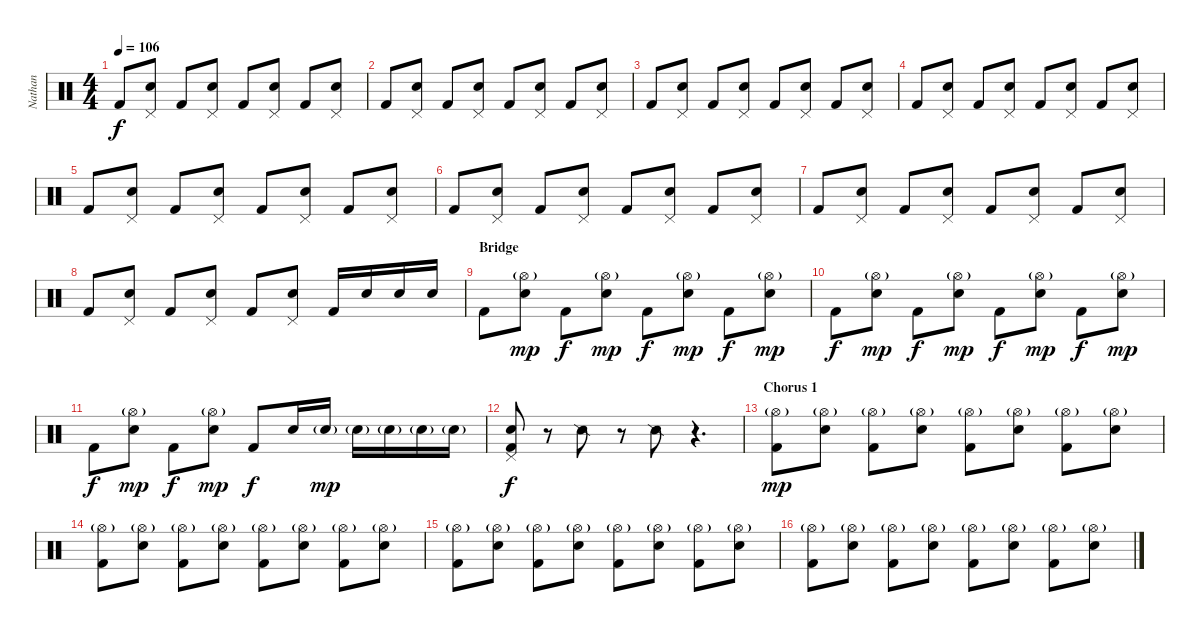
\track ("Nathan" "Nathan") {instrument percussion}
\staff {score}
\articulation defaults
\ts (4 4)
\tempo 106
\clef neutral
\ks c "Kick (hit) 2".8{dy f}
("Pedal Hi-Hat (hit)" "Snare (hit) 2").8 "Kick (hit) 2".8 ("Pedal Hi-Hat (hit)" "Snare (hit) 2").8 "Kick (hit) 2".8 ("Pedal Hi-Hat (hit)" "Snare (hit) 2").8 "Kick (hit) 2".8 ("Pedal Hi-Hat (hit)" "Snare (hit) 2").8 |
"Kick (hit) 2".8 ("Pedal Hi-Hat (hit)" "Snare (hit) 2").8 "Kick (hit) 2".8 ("Pedal Hi-Hat (hit)" "Snare (hit) 2").8 "Kick (hit) 2".8 ("Pedal Hi-Hat (hit)" "Snare (hit) 2").8 "Kick (hit) 2".8 ("Pedal Hi-Hat (hit)" "Snare (hit) 2").8 |
"Kick (hit) 2".8 ("Pedal Hi-Hat (hit)" "Snare (hit) 2").8 "Kick (hit) 2".8 ("Pedal Hi-Hat (hit)" "Snare (hit) 2").8 "Kick (hit) 2".8 ("Pedal Hi-Hat (hit)" "Snare (hit) 2").8 "Kick (hit) 2".8 ("Pedal Hi-Hat (hit)" "Snare (hit) 2").8 |
"Kick (hit) 2".8 ("Pedal Hi-Hat (hit)" "Snare (hit) 2").8 "Kick (hit) 2".8 ("Pedal Hi-Hat (hit)" "Snare (hit) 2").8 "Kick (hit) 2".8 ("Pedal Hi-Hat (hit)" "Snare (hit) 2").8 "Kick (hit) 2".8 ("Pedal Hi-Hat (hit)" "Snare (hit) 2").8 |
"Kick (hit) 2".8 ("Pedal Hi-Hat (hit)" "Snare (hit) 2").8 "Kick (hit) 2".8 ("Pedal Hi-Hat (hit)" "Snare (hit) 2").8 "Kick (hit) 2".8 ("Pedal Hi-Hat (hit)" "Snare (hit) 2").8 "Kick (hit) 2".8 ("Pedal Hi-Hat (hit)" "Snare (hit) 2").8 |
"Kick (hit) 2".8 ("Pedal Hi-Hat (hit)" "Snare (hit) 2").8 "Kick (hit) 2".8 ("Pedal Hi-Hat (hit)" "Snare (hit) 2").8 "Kick (hit) 2".8 ("Pedal Hi-Hat (hit)" "Snare (hit) 2").8 "Kick (hit) 2".8 ("Pedal Hi-Hat (hit)" "Snare (hit) 2").8 |
"Kick (hit) 2".8 ("Pedal Hi-Hat (hit)" "Snare (hit) 2").8 "Kick (hit) 2".8 ("Pedal Hi-Hat (hit)" "Snare (hit) 2").8 "Kick (hit) 2".8 ("Pedal Hi-Hat (hit)" "Snare (hit) 2").8 "Kick (hit) 2".8 ("Pedal Hi-Hat (hit)" "Snare (hit) 2").8 |
"Kick (hit) 2".8 ("Pedal Hi-Hat (hit)" "Snare (hit) 2").8 "Kick (hit) 2".8 ("Pedal Hi-Hat (hit)" "Snare (hit) 2").8 "Kick (hit) 2".8 ("Pedal Hi-Hat (hit)" "Snare (hit) 2").8 "Kick (hit) 2".16 "Snare (hit) 2".16 "Snare (hit) 2".16 "Snare (hit) 2".16 |
\section ("" "Bridge")
"Kick (hit) 2".8 ("Hi-Hat (open)"{g} "Snare (hit) 2").8{dy mp} "Kick (hit) 2".8{dy f} ("Hi-Hat (open)"{g} "Snare (hit) 2").8{dy mp} "Kick (hit) 2".8{dy f} ("Hi-Hat (open)"{g} "Snare (hit) 2").8{dy mp} "Kick (hit) 2".8{dy f} ("Hi-Hat (open)"{g} "Snare (hit) 2").8{dy mp} |
"Kick (hit) 2".8{dy f} ("Hi-Hat (open)"{g} "Snare (hit) 2").8{dy mp} "Kick (hit) 2".8{dy f} ("Hi-Hat (open)"{g} "Snare (hit) 2").8{dy mp} "Kick (hit) 2".8{dy f} ("Hi-Hat (open)"{g} "Snare (hit) 2").8{dy mp} "Kick (hit) 2".8{dy f} ("Hi-Hat (open)"{g} "Snare (hit) 2").8{dy mp} |
"Kick (hit) 2".8{dy f} ("Hi-Hat (open)"{g} "Snare (hit) 2").8{dy mp} "Kick (hit) 2".8{dy f} ("Hi-Hat (open)"{g} "Snare (hit) 2").8{dy mp} "Kick (hit) 2".8{dy f} "Snare (hit) 2".16 "Snare (hit) 2"{g}.16{dy mp} "Snare (hit) 2"{g}.16 "Snare (hit) 2"{g}.16 "Snare (hit) 2"{g}.16 "Snare (hit) 2"{g}.16 |
("Pedal Hi-Hat (hit)" "Snare (hit) 2" "Kick (hit) 2").8{dy f} r.8 "Snare (side stick) 2".8 r.8 "Snare (side stick) 2".8 r.4{d} |
\section ("" "Chorus 1")
("Hi-Hat (open)"{g} "Kick (hit) 2").8{dy mp} ("Hi-Hat (open)"{g} "Snare (hit) 2").8 ("Hi-Hat (open)"{g} "Kick (hit) 2").8 ("Hi-Hat (open)"{g} "Snare (hit) 2").8 ("Hi-Hat (open)"{g} "Kick (hit) 2").8 ("Hi-Hat (open)"{g} "Snare (hit) 2").8 ("Hi-Hat (open)"{g} "Kick (hit) 2").8 ("Hi-Hat (open)"{g} "Snare (hit) 2").8 |
("Hi-Hat (open)"{g} "Kick (hit) 2").8 ("Hi-Hat (open)"{g} "Snare (hit) 2").8 ("Hi-Hat (open)"{g} "Kick (hit) 2").8 ("Hi-Hat (open)"{g} "Snare (hit) 2").8 ("Hi-Hat (open)"{g} "Kick (hit) 2").8 ("Hi-Hat (open)"{g} "Snare (hit) 2").8 ("Hi-Hat (open)"{g} "Kick (hit) 2").8 ("Hi-Hat (open)"{g} "Snare (hit) 2").8 |
("Hi-Hat (open)"{g} "Kick (hit) 2").8 ("Hi-Hat (open)"{g} "Snare (hit) 2").8 ("Hi-Hat (open)"{g} "Kick (hit) 2").8 ("Hi-Hat (open)"{g} "Snare (hit) 2").8 ("Hi-Hat (open)"{g} "Kick (hit) 2").8 ("Hi-Hat (open)"{g} "Snare (hit) 2").8 ("Hi-Hat (open)"{g} "Kick (hit) 2").8 ("Hi-Hat (open)"{g} "Snare (hit) 2").8 |
("Hi-Hat (open)"{g} "Kick (hit) 2").8 ("Hi-Hat (open)"{g} "Snare (hit) 2").8 ("Hi-Hat (open)"{g} "Kick (hit) 2").8 ("Hi-Hat (open)"{g} "Snare (hit) 2").8 ("Hi-Hat (open)"{g} "Kick (hit) 2").8 ("Hi-Hat (open)"{g} "Snare (hit) 2").8 ("Hi-Hat (open)"{g} "Kick (hit) 2").8 ("Hi-Hat (open)"{g} "Snare (hit) 2").8
